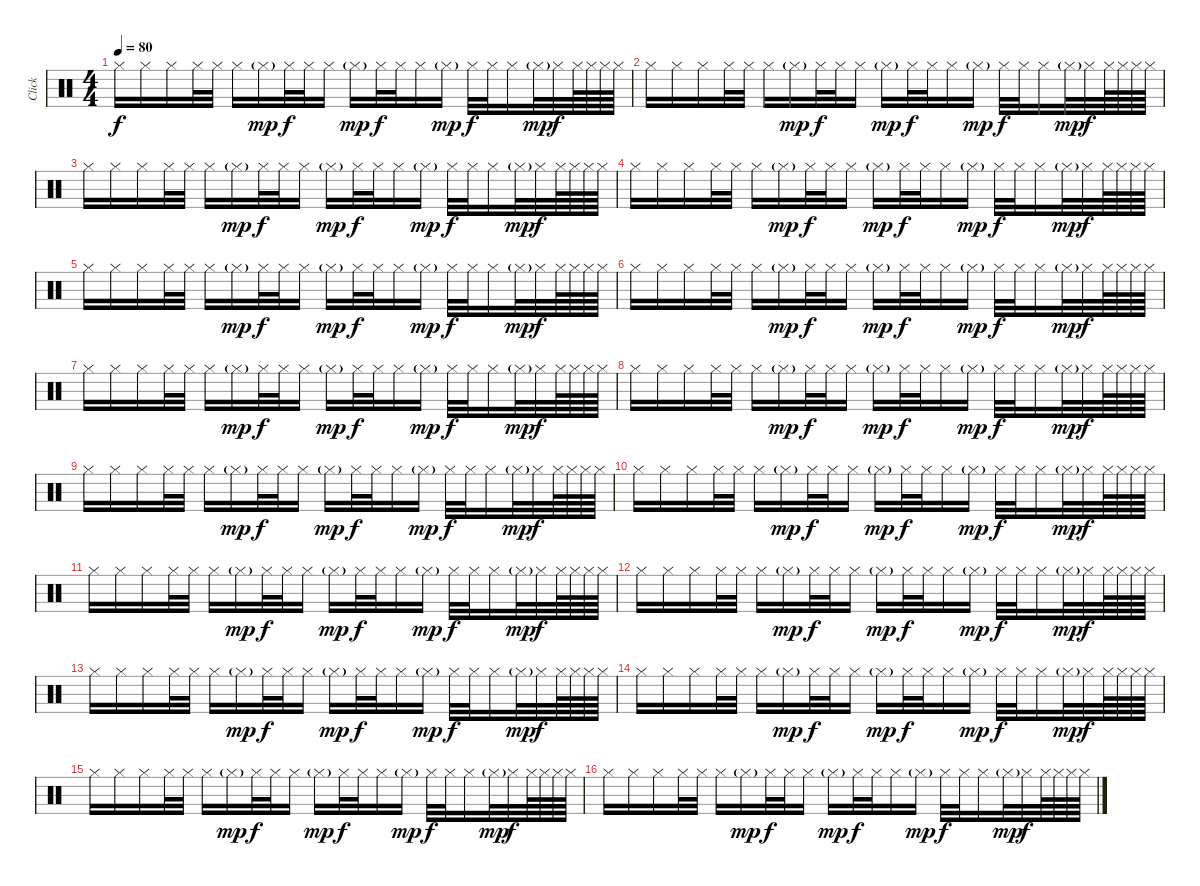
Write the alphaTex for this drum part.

\track ("Click" "Click") {instrument percussion}
\staff {score}
\articulation defaults
\ts (4 4)
\tempo 80
\clef neutral
\ks c "Hi-Hat (closed)".16{dy f} "Hi-Hat (closed)".16 "Hi-Hat (closed)".16 "Hi-Hat (closed)".32 "Hi-Hat (closed)".32 "Hi-Hat (closed)".16 "Hi-Hat (closed)"{g}.16{dy mp} "Hi-Hat (closed)".32{dy f} "Hi-Hat (closed)".32 "Hi-Hat (closed)".16 "Hi-Hat (closed)"{g}.16{dy mp} "Hi-Hat (closed)".32{dy f} "Hi-Hat (closed)".32 "Hi-Hat (closed)".16 "Hi-Hat (closed)"{g}.16{dy mp} "Hi-Hat (closed)".32{dy f} "Hi-Hat (closed)".32 "Hi-Hat (closed)".16 "Hi-Hat (closed)"{g}.32{dy mp} "Hi-Hat (closed)".32{dy f} "Hi-Hat (closed)".64 "Hi-Hat (closed)".64 "Hi-Hat (closed)".64 "Hi-Hat (closed)".64
|
"Hi-Hat (closed)".16 "Hi-Hat (closed)".16 "Hi-Hat (closed)".16 "Hi-Hat (closed)".32 "Hi-Hat (closed)".32 "Hi-Hat (closed)".16 "Hi-Hat (closed)"{g}.16{dy mp} "Hi-Hat (closed)".32{dy f} "Hi-Hat (closed)".32 "Hi-Hat (closed)".16 "Hi-Hat (closed)"{g}.16{dy mp} "Hi-Hat (closed)".32{dy f} "Hi-Hat (closed)".32 "Hi-Hat (closed)".16 "Hi-Hat (closed)"{g}.16{dy mp} "Hi-Hat (closed)".32{dy f} "Hi-Hat (closed)".32 "Hi-Hat (closed)".16 "Hi-Hat (closed)"{g}.32{dy mp} "Hi-Hat (closed)".32{dy f} "Hi-Hat (closed)".64 "Hi-Hat (closed)".64 "Hi-Hat (closed)".64 "Hi-Hat (closed)".64 |
"Hi-Hat (closed)".16 "Hi-Hat (closed)".16 "Hi-Hat (closed)".16 "Hi-Hat (closed)".32 "Hi-Hat (closed)".32 "Hi-Hat (closed)".16 "Hi-Hat (closed)"{g}.16{dy mp} "Hi-Hat (closed)".32{dy f} "Hi-Hat (closed)".32 "Hi-Hat (closed)".16 "Hi-Hat (closed)"{g}.16{dy mp} "Hi-Hat (closed)".32{dy f} "Hi-Hat (closed)".32 "Hi-Hat (closed)".16 "Hi-Hat (closed)"{g}.16{dy mp} "Hi-Hat (closed)".32{dy f} "Hi-Hat (closed)".32 "Hi-Hat (closed)".16 "Hi-Hat (closed)"{g}.32{dy mp} "Hi-Hat (closed)".32{dy f} "Hi-Hat (closed)".64 "Hi-Hat (closed)".64 "Hi-Hat (closed)".64 "Hi-Hat (closed)".64 |
"Hi-Hat (closed)".16 "Hi-Hat (closed)".16 "Hi-Hat (closed)".16 "Hi-Hat (closed)".32 "Hi-Hat (closed)".32 "Hi-Hat (closed)".16 "Hi-Hat (closed)"{g}.16{dy mp} "Hi-Hat (closed)".32{dy f} "Hi-Hat (closed)".32 "Hi-Hat (closed)".16 "Hi-Hat (closed)"{g}.16{dy mp} "Hi-Hat (closed)".32{dy f} "Hi-Hat (closed)".32 "Hi-Hat (closed)".16 "Hi-Hat (closed)"{g}.16{dy mp} "Hi-Hat (closed)".32{dy f} "Hi-Hat (closed)".32 "Hi-Hat (closed)".16 "Hi-Hat (closed)"{g}.32{dy mp} "Hi-Hat (closed)".32{dy f} "Hi-Hat (closed)".64 "Hi-Hat (closed)".64 "Hi-Hat (closed)".64 "Hi-Hat (closed)".64 |
"Hi-Hat (closed)".16 "Hi-Hat (closed)".16 "Hi-Hat (closed)".16 "Hi-Hat (closed)".32 "Hi-Hat (closed)".32 "Hi-Hat (closed)".16 "Hi-Hat (closed)"{g}.16{dy mp} "Hi-Hat (closed)".32{dy f} "Hi-Hat (closed)".32 "Hi-Hat (closed)".16 "Hi-Hat (closed)"{g}.16{dy mp} "Hi-Hat (closed)".32{dy f} "Hi-Hat (closed)".32 "Hi-Hat (closed)".16 "Hi-Hat (closed)"{g}.16{dy mp} "Hi-Hat (closed)".32{dy f} "Hi-Hat (closed)".32 "Hi-Hat (closed)".16 "Hi-Hat (closed)"{g}.32{dy mp} "Hi-Hat (closed)".32{dy f} "Hi-Hat (closed)".64 "Hi-Hat (closed)".64 "Hi-Hat (closed)".64 "Hi-Hat (closed)".64 |
"Hi-Hat (closed)".16 "Hi-Hat (closed)".16 "Hi-Hat (closed)".16 "Hi-Hat (closed)".32 "Hi-Hat (closed)".32 "Hi-Hat (closed)".16 "Hi-Hat (closed)"{g}.16{dy mp} "Hi-Hat (closed)".32{dy f} "Hi-Hat (closed)".32 "Hi-Hat (closed)".16 "Hi-Hat (closed)"{g}.16{dy mp} "Hi-Hat (closed)".32{dy f} "Hi-Hat (closed)".32 "Hi-Hat (closed)".16 "Hi-Hat (closed)"{g}.16{dy mp} "Hi-Hat (closed)".32{dy f} "Hi-Hat (closed)".32 "Hi-Hat (closed)".16 "Hi-Hat (closed)"{g}.32{dy mp} "Hi-Hat (closed)".32{dy f} "Hi-Hat (closed)".64 "Hi-Hat (closed)".64 "Hi-Hat (closed)".64 "Hi-Hat (closed)".64 |
"Hi-Hat (closed)".16 "Hi-Hat (closed)".16 "Hi-Hat (closed)".16 "Hi-Hat (closed)".32 "Hi-Hat (closed)".32 "Hi-Hat (closed)".16 "Hi-Hat (closed)"{g}.16{dy mp} "Hi-Hat (closed)".32{dy f} "Hi-Hat (closed)".32 "Hi-Hat (closed)".16 "Hi-Hat (closed)"{g}.16{dy mp} "Hi-Hat (closed)".32{dy f} "Hi-Hat (closed)".32 "Hi-Hat (closed)".16 "Hi-Hat (closed)"{g}.16{dy mp} "Hi-Hat (closed)".32{dy f} "Hi-Hat (closed)".32 "Hi-Hat (closed)".16 "Hi-Hat (closed)"{g}.32{dy mp} "Hi-Hat (closed)".32{dy f} "Hi-Hat (closed)".64 "Hi-Hat (closed)".64 "Hi-Hat (closed)".64 "Hi-Hat (closed)".64 |
"Hi-Hat (closed)".16 "Hi-Hat (closed)".16 "Hi-Hat (closed)".16 "Hi-Hat (closed)".32 "Hi-Hat (closed)".32 "Hi-Hat (closed)".16 "Hi-Hat (closed)"{g}.16{dy mp} "Hi-Hat (closed)".32{dy f} "Hi-Hat (closed)".32 "Hi-Hat (closed)".16 "Hi-Hat (closed)"{g}.16{dy mp} "Hi-Hat (closed)".32{dy f} "Hi-Hat (closed)".32 "Hi-Hat (closed)".16 "Hi-Hat (closed)"{g}.16{dy mp} "Hi-Hat (closed)".32{dy f} "Hi-Hat (closed)".32 "Hi-Hat (closed)".16 "Hi-Hat (closed)"{g}.32{dy mp} "Hi-Hat (closed)".32{dy f} "Hi-Hat (closed)".64 "Hi-Hat (closed)".64 "Hi-Hat (closed)".64 "Hi-Hat (closed)".64 |
"Hi-Hat (closed)".16 "Hi-Hat (closed)".16 "Hi-Hat (closed)".16 "Hi-Hat (closed)".32 "Hi-Hat (closed)".32 "Hi-Hat (closed)".16 "Hi-Hat (closed)"{g}.16{dy mp} "Hi-Hat (closed)".32{dy f} "Hi-Hat (closed)".32 "Hi-Hat (closed)".16 "Hi-Hat (closed)"{g}.16{dy mp} "Hi-Hat (closed)".32{dy f} "Hi-Hat (closed)".32 "Hi-Hat (closed)".16 "Hi-Hat (closed)"{g}.16{dy mp} "Hi-Hat (closed)".32{dy f} "Hi-Hat (closed)".32 "Hi-Hat (closed)".16 "Hi-Hat (closed)"{g}.32{dy mp} "Hi-Hat (closed)".32{dy f} "Hi-Hat (closed)".64 "Hi-Hat (closed)".64 "Hi-Hat (closed)".64 "Hi-Hat (closed)".64 |
"Hi-Hat (closed)".16 "Hi-Hat (closed)".16 "Hi-Hat (closed)".16 "Hi-Hat (closed)".32 "Hi-Hat (closed)".32 "Hi-Hat (closed)".16 "Hi-Hat (closed)"{g}.16{dy mp} "Hi-Hat (closed)".32{dy f} "Hi-Hat (closed)".32 "Hi-Hat (closed)".16 "Hi-Hat (closed)"{g}.16{dy mp} "Hi-Hat (closed)".32{dy f} "Hi-Hat (closed)".32 "Hi-Hat (closed)".16 "Hi-Hat (closed)"{g}.16{dy mp} "Hi-Hat (closed)".32{dy f} "Hi-Hat (closed)".32 "Hi-Hat (closed)".16 "Hi-Hat (closed)"{g}.32{dy mp} "Hi-Hat (closed)".32{dy f} "Hi-Hat (closed)".64 "Hi-Hat (closed)".64 "Hi-Hat (closed)".64 "Hi-Hat (closed)".64 |
"Hi-Hat (closed)".16 "Hi-Hat (closed)".16 "Hi-Hat (closed)".16 "Hi-Hat (closed)".32 "Hi-Hat (closed)".32 "Hi-Hat (closed)".16 "Hi-Hat (closed)"{g}.16{dy mp} "Hi-Hat (closed)".32{dy f} "Hi-Hat (closed)".32 "Hi-Hat (closed)".16 "Hi-Hat (closed)"{g}.16{dy mp} "Hi-Hat (closed)".32{dy f} "Hi-Hat (closed)".32 "Hi-Hat (closed)".16 "Hi-Hat (closed)"{g}.16{dy mp} "Hi-Hat (closed)".32{dy f} "Hi-Hat (closed)".32 "Hi-Hat (closed)".16 "Hi-Hat (closed)"{g}.32{dy mp} "Hi-Hat (closed)".32{dy f} "Hi-Hat (closed)".64 "Hi-Hat (closed)".64 "Hi-Hat (closed)".64 "Hi-Hat (closed)".64 |
"Hi-Hat (closed)".16 "Hi-Hat (closed)".16 "Hi-Hat (closed)".16 "Hi-Hat (closed)".32 "Hi-Hat (closed)".32 "Hi-Hat (closed)".16 "Hi-Hat (closed)"{g}.16{dy mp} "Hi-Hat (closed)".32{dy f} "Hi-Hat (closed)".32 "Hi-Hat (closed)".16 "Hi-Hat (closed)"{g}.16{dy mp} "Hi-Hat (closed)".32{dy f} "Hi-Hat (closed)".32 "Hi-Hat (closed)".16 "Hi-Hat (closed)"{g}.16{dy mp} "Hi-Hat (closed)".32{dy f} "Hi-Hat (closed)".32 "Hi-Hat (closed)".16 "Hi-Hat (closed)"{g}.32{dy mp} "Hi-Hat (closed)".32{dy f} "Hi-Hat (closed)".64 "Hi-Hat (closed)".64 "Hi-Hat (closed)".64 "Hi-Hat (closed)".64 |
"Hi-Hat (closed)".16 "Hi-Hat (closed)".16 "Hi-Hat (closed)".16 "Hi-Hat (closed)".32 "Hi-Hat (closed)".32 "Hi-Hat (closed)".16 "Hi-Hat (closed)"{g}.16{dy mp} "Hi-Hat (closed)".32{dy f} "Hi-Hat (closed)".32 "Hi-Hat (closed)".16 "Hi-Hat (closed)"{g}.16{dy mp} "Hi-Hat (closed)".32{dy f} "Hi-Hat (closed)".32 "Hi-Hat (closed)".16 "Hi-Hat (closed)"{g}.16{dy mp} "Hi-Hat (closed)".32{dy f} "Hi-Hat (closed)".32 "Hi-Hat (closed)".16 "Hi-Hat (closed)"{g}.32{dy mp} "Hi-Hat (closed)".32{dy f} "Hi-Hat (closed)".64 "Hi-Hat (closed)".64 "Hi-Hat (closed)".64 "Hi-Hat (closed)".64 |
"Hi-Hat (closed)".16 "Hi-Hat (closed)".16 "Hi-Hat (closed)".16 "Hi-Hat (closed)".32 "Hi-Hat (closed)".32 "Hi-Hat (closed)".16 "Hi-Hat (closed)"{g}.16{dy mp} "Hi-Hat (closed)".32{dy f} "Hi-Hat (closed)".32 "Hi-Hat (closed)".16 "Hi-Hat (closed)"{g}.16{dy mp} "Hi-Hat (closed)".32{dy f} "Hi-Hat (closed)".32 "Hi-Hat (closed)".16 "Hi-Hat (closed)"{g}.16{dy mp} "Hi-Hat (closed)".32{dy f} "Hi-Hat (closed)".32 "Hi-Hat (closed)".16 "Hi-Hat (closed)"{g}.32{dy mp} "Hi-Hat (closed)".32{dy f} "Hi-Hat (closed)".64 "Hi-Hat (closed)".64 "Hi-Hat (closed)".64 "Hi-Hat (closed)".64 |
"Hi-Hat (closed)".16 "Hi-Hat (closed)".16 "Hi-Hat (closed)".16 "Hi-Hat (closed)".32 "Hi-Hat (closed)".32 "Hi-Hat (closed)".16 "Hi-Hat (closed)"{g}.16{dy mp} "Hi-Hat (closed)".32{dy f} "Hi-Hat (closed)".32 "Hi-Hat (closed)".16 "Hi-Hat (closed)"{g}.16{dy mp} "Hi-Hat (closed)".32{dy f} "Hi-Hat (closed)".32 "Hi-Hat (closed)".16 "Hi-Hat (closed)"{g}.16{dy mp} "Hi-Hat (closed)".32{dy f} "Hi-Hat (closed)".32 "Hi-Hat (closed)".16 "Hi-Hat (closed)"{g}.32{dy mp} "Hi-Hat (closed)".32{dy f} "Hi-Hat (closed)".64 "Hi-Hat (closed)".64 "Hi-Hat (closed)".64 "Hi-Hat (closed)".64 |
"Hi-Hat (closed)".16 "Hi-Hat (closed)".16 "Hi-Hat (closed)".16 "Hi-Hat (closed)".32 "Hi-Hat (closed)".32 "Hi-Hat (closed)".16 "Hi-Hat (closed)"{g}.16{dy mp} "Hi-Hat (closed)".32{dy f} "Hi-Hat (closed)".32 "Hi-Hat (closed)".16 "Hi-Hat (closed)"{g}.16{dy mp} "Hi-Hat (closed)".32{dy f} "Hi-Hat (closed)".32 "Hi-Hat (closed)".16 "Hi-Hat (closed)"{g}.16{dy mp} "Hi-Hat (closed)".32{dy f} "Hi-Hat (closed)".32 "Hi-Hat (closed)".16 "Hi-Hat (closed)"{g}.32{dy mp} "Hi-Hat (closed)".32{dy f} "Hi-Hat (closed)".64 "Hi-Hat (closed)".64 "Hi-Hat (closed)".64 "Hi-Hat (closed)".64
